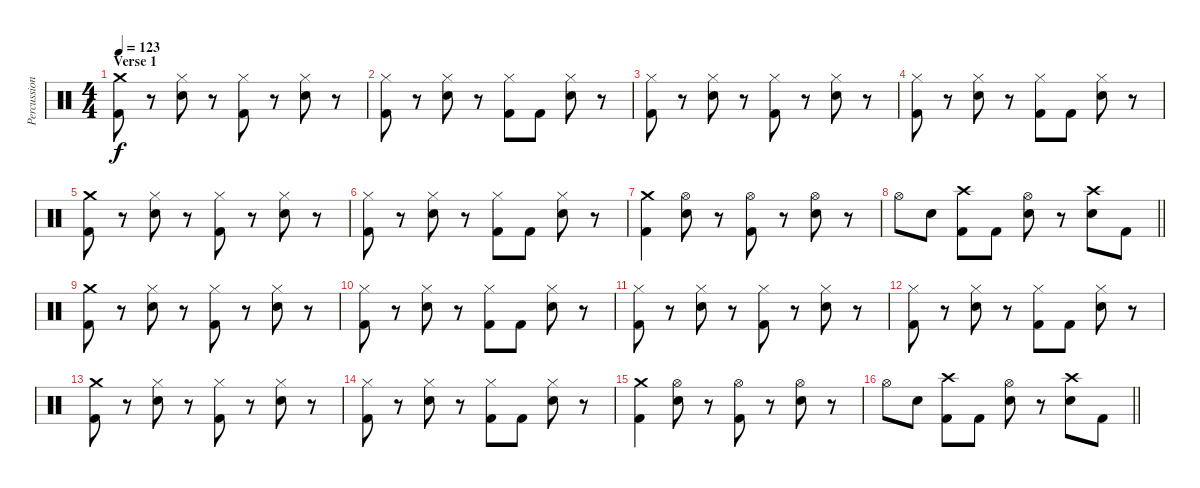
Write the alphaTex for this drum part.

\track ("Percussion" "Percussion") {instrument percussion}
\staff {score}
\articulation defaults
\ts (4 4)
\section ("" "Verse 1")
\tempo 123
\clef neutral
\ks c
("Crash medium (hit)" "Kick (hit) 2").8{dy f} r.8 ("Hi-Hat (closed)" "Electric Snare (hit)").8 r.8 ("Hi-Hat (closed)" "Kick (hit) 2").8 r.8 ("Hi-Hat (closed)" "Electric Snare (hit)").8 r.8 |
("Hi-Hat (closed)" "Kick (hit) 2").8 r.8 ("Hi-Hat (closed)" "Electric Snare (hit)").8 r.8 ("Hi-Hat (closed)" "Kick (hit) 2").8 "Kick (hit) 2".8 ("Hi-Hat (closed)" "Electric Snare (hit)").8 r.8 |
("Hi-Hat (closed)" "Kick (hit) 2").8 r.8 ("Hi-Hat (closed)" "Electric Snare (hit)").8 r.8 ("Hi-Hat (closed)" "Kick (hit) 2").8 r.8 ("Hi-Hat (closed)" "Electric Snare (hit)").8 r.8 |
("Hi-Hat (closed)" "Kick (hit) 2").8 r.8 ("Hi-Hat (closed)" "Electric Snare (hit)").8 r.8 ("Hi-Hat (closed)" "Kick (hit) 2").8 "Kick (hit) 2".8 ("Hi-Hat (closed)" "Electric Snare (hit)").8 r.8 |
("Crash medium (hit)" "Kick (hit) 2").8 r.8 ("Hi-Hat (closed)" "Electric Snare (hit)").8 r.8 ("Hi-Hat (closed)" "Kick (hit) 2").8 r.8 ("Hi-Hat (closed)" "Electric Snare (hit)").8 r.8 |
("Hi-Hat (closed)" "Kick (hit) 2").8 r.8 ("Hi-Hat (closed)" "Electric Snare (hit)").8 r.8 ("Hi-Hat (closed)" "Kick (hit) 2").8 "Kick (hit) 2".8 ("Hi-Hat (closed)" "Electric Snare (hit)").8 r.8 |
("Crash medium (hit)" "Kick (hit) 2").4 ("Hi-Hat (open)" "Electric Snare (hit)").8 r.8 ("Hi-Hat (open)" "Kick (hit) 2").8 r.8 ("Hi-Hat (open)" "Electric Snare (hit)").8 r.8 |
\barLineRight lightlight "Hi-Hat (open)".8 "Electric Snare (hit)".8
("Crash high (hit)" "Kick (hit) 2").8 "Kick (hit) 2".8 ("Hi-Hat (open)" "Electric Snare (hit)").8 r.8 ("Crash high (hit)" "Electric Snare (hit)").8 "Kick (hit) 2".8 |
("Crash medium (hit)" "Kick (hit) 2").8 r.8 ("Hi-Hat (closed)" "Electric Snare (hit)").8 r.8 ("Hi-Hat (closed)" "Kick (hit) 2").8 r.8 ("Hi-Hat (closed)" "Electric Snare (hit)").8 r.8 |
("Hi-Hat (closed)" "Kick (hit) 2").8 r.8 ("Hi-Hat (closed)" "Electric Snare (hit)").8 r.8 ("Hi-Hat (closed)" "Kick (hit) 2").8 "Kick (hit) 2".8 ("Hi-Hat (closed)" "Electric Snare (hit)").8 r.8 |
("Hi-Hat (closed)" "Kick (hit) 2").8 r.8 ("Hi-Hat (closed)" "Electric Snare (hit)").8 r.8 ("Hi-Hat (closed)" "Kick (hit) 2").8 r.8 ("Hi-Hat (closed)" "Electric Snare (hit)").8 r.8 |
("Hi-Hat (closed)" "Kick (hit) 2").8 r.8 ("Hi-Hat (closed)" "Electric Snare (hit)").8 r.8 ("Hi-Hat (closed)" "Kick (hit) 2").8 "Kick (hit) 2".8 ("Hi-Hat (closed)" "Electric Snare (hit)").8 r.8 |
("Crash medium (hit)" "Kick (hit) 2").8 r.8 ("Hi-Hat (closed)" "Electric Snare (hit)").8 r.8 ("Hi-Hat (closed)" "Kick (hit) 2").8 r.8 ("Hi-Hat (closed)" "Electric Snare (hit)").8 r.8 |
("Hi-Hat (closed)" "Kick (hit) 2").8 r.8 ("Hi-Hat (closed)" "Electric Snare (hit)").8 r.8 ("Hi-Hat (closed)" "Kick (hit) 2").8 "Kick (hit) 2".8 ("Hi-Hat (closed)" "Electric Snare (hit)").8 r.8 |
("Crash medium (hit)" "Kick (hit) 2").4 ("Hi-Hat (open)" "Electric Snare (hit)").8 r.8 ("Hi-Hat (open)" "Kick (hit) 2").8 r.8 ("Hi-Hat (open)" "Electric Snare (hit)").8 r.8 |
\barLineRight lightlight "Hi-Hat (open)".8 "Electric Snare (hit)".8
("Crash high (hit)" "Kick (hit) 2").8 "Kick (hit) 2".8 ("Hi-Hat (open)" "Electric Snare (hit)").8 r.8 ("Crash high (hit)" "Electric Snare (hit)").8 "Kick (hit) 2".8
